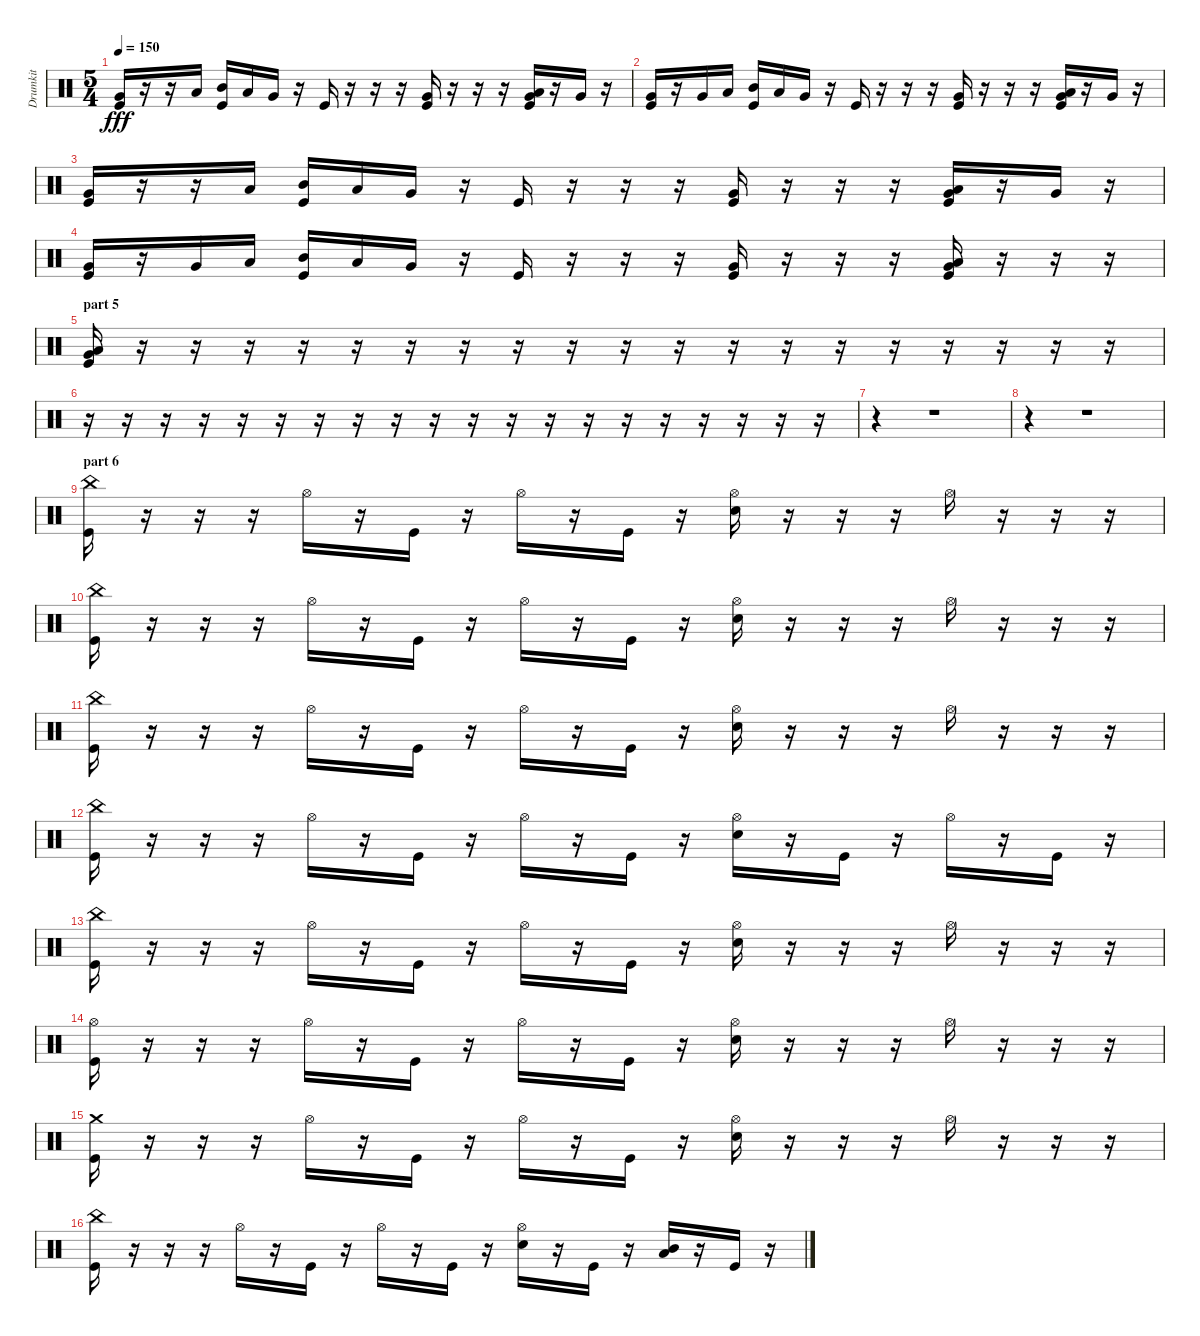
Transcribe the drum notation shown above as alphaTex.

\track ("Drumkit" "Drumkit") {instrument percussion}
\staff {score}
\articulation defaults
\ts (5 4)
\tempo 150
\clef neutral
\ks c
("Kick (hit)" "Very Low Tom (hit)").16{dy fff} r.16 r.16 "Low Tom (hit)".16 ("Kick (hit)" "Mid Tom (hit)").16 "Low Tom (hit)".16 "Very Low Tom (hit)".16 r.16 "Kick (hit)".16 r.16 r.16 r.16 ("Kick (hit)" "Very Low Tom (hit)").16 r.16 r.16 r.16 ("Kick (hit)" "Very Low Tom (hit)" "Low Tom (hit)").16 r.16 "Very Low Tom (hit)".16 r.16 |
("Kick (hit)" "Very Low Tom (hit)").16 r.16 "Very Low Tom (hit)".16 "Low Tom (hit)".16 ("Kick (hit)" "Mid Tom (hit)").16 "Low Tom (hit)".16 "Very Low Tom (hit)".16 r.16 "Kick (hit)".16 r.16 r.16 r.16 ("Kick (hit)" "Very Low Tom (hit)").16 r.16 r.16 r.16 ("Kick (hit)" "Very Low Tom (hit)" "Low Tom (hit)").16 r.16 "Very Low Tom (hit)".16 r.16 |
("Kick (hit)" "Very Low Tom (hit)").16 r.16 r.16 "Low Tom (hit)".16 ("Kick (hit)" "Mid Tom (hit)").16 "Low Tom (hit)".16 "Very Low Tom (hit)".16 r.16 "Kick (hit)".16 r.16 r.16 r.16 ("Kick (hit)" "Very Low Tom (hit)").16 r.16 r.16 r.16 ("Kick (hit)" "Very Low Tom (hit)" "Low Tom (hit)").16 r.16 "Very Low Tom (hit)".16 r.16 |
("Kick (hit)" "Very Low Tom (hit)").16 r.16 "Very Low Tom (hit)".16 "Low Tom (hit)".16 ("Kick (hit)" "Mid Tom (hit)").16 "Low Tom (hit)".16 "Very Low Tom (hit)".16 r.16 "Kick (hit)".16 r.16 r.16 r.16 ("Kick (hit)" "Very Low Tom (hit)").16 r.16 r.16 r.16 ("Kick (hit)" "Very Low Tom (hit)" "Low Tom (hit)").16 r.16 r.16 r.16 |
\section ("" "part 5")
("Kick (hit)" "Very Low Tom (hit)" "Low Tom (hit)").16 r.16 r.16 r.16 r.16 r.16 r.16 r.16 r.16 r.16 r.16 r.16 r.16 r.16 r.16 r.16 r.16 r.16 r.16 r.16 |
r.16 r.16 r.16 r.16 r.16 r.16 r.16 r.16 r.16 r.16 r.16 r.16 r.16 r.16 r.16 r.16 r.16 r.16 r.16 r.16 |
r.4 r.1 |
r.4 r.1 |
\section ("" "part 6")
("Kick (hit)" "China (hit)").16 r.16 r.16 r.16 "Hi-Hat (open)".16 r.16 "Kick (hit)".16 r.16 "Hi-Hat (open)".16 r.16 "Kick (hit)".16 r.16 ("Hi-Hat (open)" "Snare (hit) 2").16 r.16 r.16 r.16 "Hi-Hat (open)".16 r.16 r.16 r.16 |
("Kick (hit)" "China (hit)").16 r.16 r.16 r.16 "Hi-Hat (open)".16 r.16 "Kick (hit)".16 r.16 "Hi-Hat (open)".16 r.16 "Kick (hit)".16 r.16 ("Hi-Hat (open)" "Snare (hit) 2").16 r.16 r.16 r.16 "Hi-Hat (open)".16 r.16 r.16 r.16 |
("Kick (hit)" "China (hit)").16 r.16 r.16 r.16 "Hi-Hat (open)".16 r.16 "Kick (hit)".16 r.16 "Hi-Hat (open)".16 r.16 "Kick (hit)".16 r.16 ("Hi-Hat (open)" "Snare (hit) 2").16 r.16 r.16 r.16 "Hi-Hat (open)".16 r.16 r.16 r.16 |
("Kick (hit)" "China (hit)").16 r.16 r.16 r.16 "Hi-Hat (open)".16 r.16 "Kick (hit)".16 r.16 "Hi-Hat (open)".16 r.16 "Kick (hit)".16 r.16 ("Hi-Hat (open)" "Snare (hit) 2").16 r.16 "Kick (hit)".16 r.16 "Hi-Hat (open)".16 r.16 "Kick (hit)".16 r.16 |
("Kick (hit)" "China (hit)").16 r.16 r.16 r.16 "Hi-Hat (open)".16 r.16 "Kick (hit)".16 r.16 "Hi-Hat (open)".16 r.16 "Kick (hit)".16 r.16 ("Hi-Hat (open)" "Snare (hit) 2").16 r.16 r.16 r.16 "Hi-Hat (open)".16 r.16 r.16 r.16 |
("Kick (hit)" "Hi-Hat (open)").16 r.16 r.16 r.16 "Hi-Hat (open)".16 r.16 "Kick (hit)".16 r.16 "Hi-Hat (open)".16 r.16 "Kick (hit)".16 r.16 ("Hi-Hat (open)" "Snare (hit) 2").16 r.16 r.16 r.16 "Hi-Hat (open)".16 r.16 r.16 r.16 |
("Kick (hit)" "Crash medium (hit)").16 r.16 r.16 r.16 "Hi-Hat (open)".16 r.16 "Kick (hit)".16 r.16 "Hi-Hat (open)".16 r.16 "Kick (hit)".16 r.16 ("Hi-Hat (open)" "Snare (hit) 2").16 r.16 r.16 r.16 "Hi-Hat (open)".16 r.16 r.16 r.16 |
("Kick (hit)" "China (hit)").16 r.16 r.16 r.16 "Hi-Hat (open)".16 r.16 "Kick (hit)".16 r.16 "Hi-Hat (open)".16 r.16 "Kick (hit)".16 r.16 ("Hi-Hat (open)" "Snare (hit) 2").16 r.16 "Kick (hit)".16 r.16 ("Low Floor Tom (hit)" "Mid Tom (hit)").16 r.16 "Kick (hit)".16 r.16
